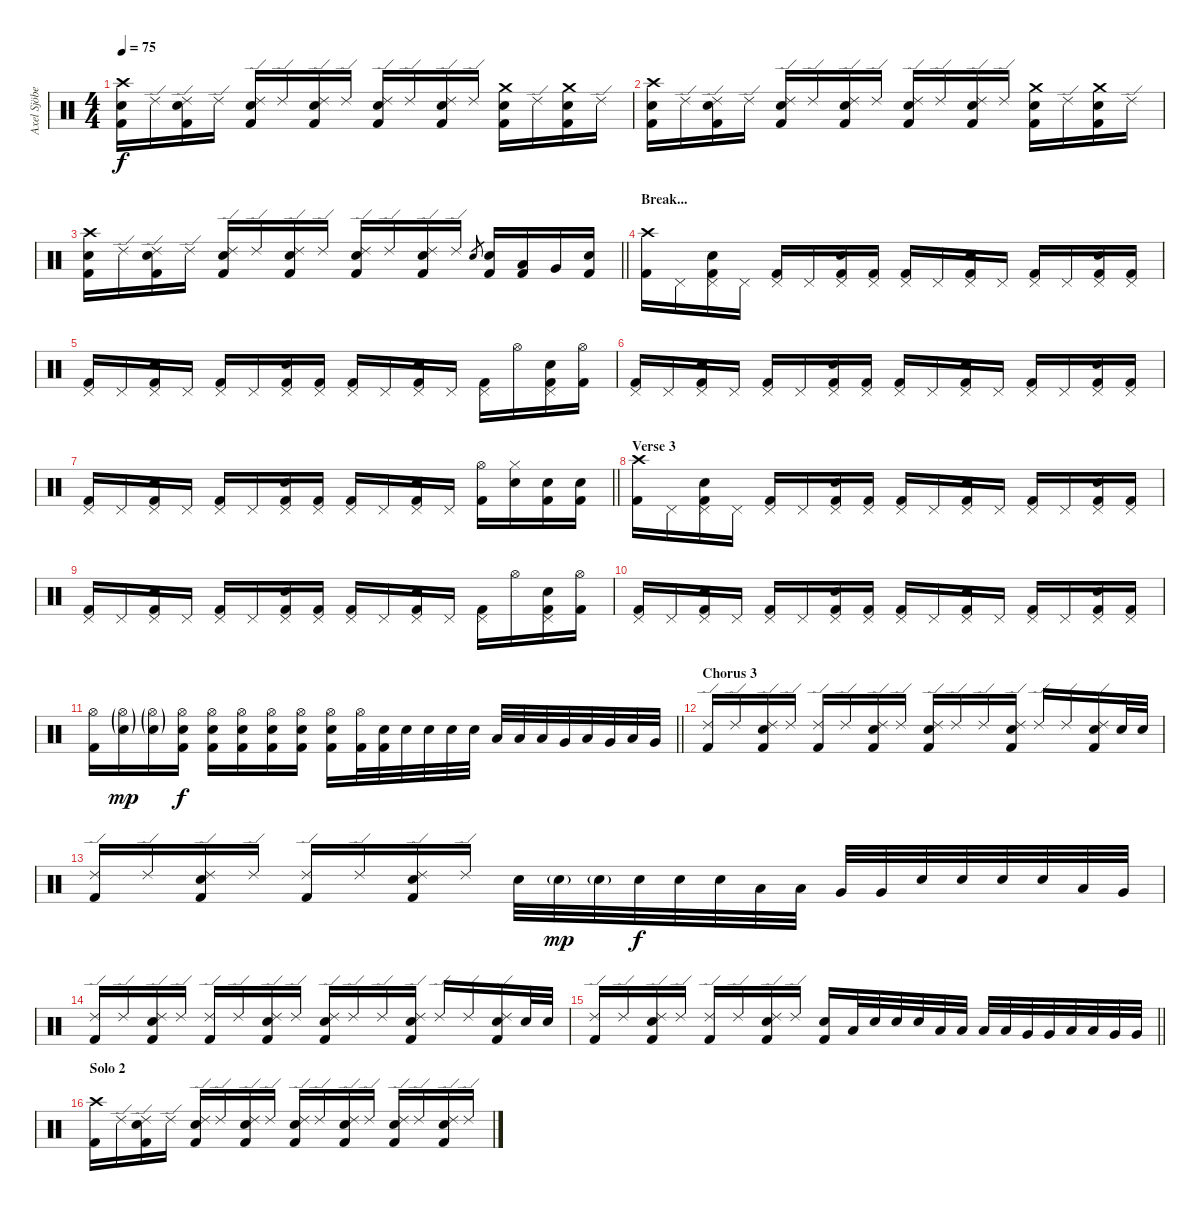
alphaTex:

\track ("Axel Sjöberg" "Axel Sjöbe") {instrument percussion}
\staff {score}
\articulation defaults
\ts (4 4)
\tempo 75
\clef neutral
\ks c
("Kick (hit) 2" "Snare (hit) 2" "Crash high (hit)").16{dy f} "Ride (edge) 2".16 ("Kick (hit) 2" "Snare (hit) 2" "Ride (edge) 2").16 "Ride (edge) 2".16 ("Kick (hit) 2" "Snare (hit) 2" "Ride (edge) 2").16 "Ride (edge) 2".16 ("Kick (hit) 2" "Snare (hit) 2" "Ride (edge) 2").16 "Ride (edge) 2".16 ("Kick (hit) 2" "Snare (hit) 2" "Ride (edge) 2").16 "Ride (edge) 2".16 ("Kick (hit) 2" "Snare (hit) 2" "Ride (edge) 2").16 "Ride (edge) 2".16 ("Kick (hit) 2" "Snare (hit) 2" "Crash medium (hit)").16 "Ride (edge) 2".16 ("Kick (hit) 2" "Snare (hit) 2" "Crash medium (hit)").16 "Ride (edge) 2".16 |
("Kick (hit) 2" "Snare (hit) 2" "Crash high (hit)").16 "Ride (edge) 2".16 ("Kick (hit) 2" "Snare (hit) 2" "Ride (edge) 2").16 "Ride (edge) 2".16 ("Kick (hit) 2" "Snare (hit) 2" "Ride (edge) 2").16 "Ride (edge) 2".16 ("Kick (hit) 2" "Snare (hit) 2" "Ride (edge) 2").16 "Ride (edge) 2".16 ("Kick (hit) 2" "Snare (hit) 2" "Ride (edge) 2").16 "Ride (edge) 2".16 ("Kick (hit) 2" "Snare (hit) 2" "Ride (edge) 2").16 "Ride (edge) 2".16 ("Kick (hit) 2" "Snare (hit) 2" "Crash medium (hit)").16 "Ride (edge) 2".16 ("Kick (hit) 2" "Snare (hit) 2" "Crash medium (hit)").16 "Ride (edge) 2".16 |
\barLineRight lightlight
("Kick (hit) 2" "Snare (hit) 2" "Crash high (hit)").16 "Ride (edge) 2".16 ("Kick (hit) 2" "Snare (hit) 2" "Ride (edge) 2").16 "Ride (edge) 2".16 ("Kick (hit) 2" "Snare (hit) 2" "Ride (edge) 2").16 "Ride (edge) 2".16 ("Kick (hit) 2" "Snare (hit) 2" "Ride (edge) 2").16 "Ride (edge) 2".16 ("Kick (hit) 2" "Snare (hit) 2" "Ride (edge) 2").16 "Ride (edge) 2".16 ("Kick (hit) 2" "Snare (hit) 2" "Ride (edge) 2").16 "Ride (edge) 2".16 "Snare (hit) 2".8{gr} ("Kick (hit) 2" "Snare (hit) 2").16 ("Kick (hit) 2" "Low Tom (hit)").16 "Very Low Tom (hit)".16 ("Kick (hit) 2" "Snare (hit) 2").16 |
\section ("" "Break...")
("Kick (hit) 2" "Crash high (hit)").16 "Pedal Hi-Hat (hit)".16 ("Kick (hit) 2" "Snare (hit) 2" "Pedal Hi-Hat (hit)").16 "Pedal Hi-Hat (hit)".16 ("Kick (hit) 2" "Pedal Hi-Hat (hit)").16 "Pedal Hi-Hat (hit)".16 ("Kick (hit) 2" "Snare (hit) 2" "Pedal Hi-Hat (hit)").16 ("Kick (hit) 2" "Pedal Hi-Hat (hit)").16 ("Kick (hit) 2" "Pedal Hi-Hat (hit)").16 "Pedal Hi-Hat (hit)".16 ("Kick (hit) 2" "Snare (hit) 2" "Pedal Hi-Hat (hit)").16 "Pedal Hi-Hat (hit)".16 ("Kick (hit) 2" "Pedal Hi-Hat (hit)").16 "Pedal Hi-Hat (hit)".16 ("Kick (hit) 2" "Snare (hit) 2" "Pedal Hi-Hat (hit)").16 ("Kick (hit) 2" "Pedal Hi-Hat (hit)").16 |
("Kick (hit) 2" "Pedal Hi-Hat (hit)").16 "Pedal Hi-Hat (hit)".16 ("Kick (hit) 2" "Snare (hit) 2" "Pedal Hi-Hat (hit)").16 "Pedal Hi-Hat (hit)".16 ("Kick (hit) 2" "Pedal Hi-Hat (hit)").16 "Pedal Hi-Hat (hit)".16 ("Kick (hit) 2" "Snare (hit) 2" "Pedal Hi-Hat (hit)").16 ("Kick (hit) 2" "Pedal Hi-Hat (hit)").16 ("Kick (hit) 2" "Pedal Hi-Hat (hit)").16 "Pedal Hi-Hat (hit)".16 ("Kick (hit) 2" "Snare (hit) 2" "Pedal Hi-Hat (hit)").16 "Pedal Hi-Hat (hit)".16 ("Kick (hit) 2" "Pedal Hi-Hat (hit)").16 "Hi-Hat (open)".16 ("Kick (hit) 2" "Snare (hit) 2" "Pedal Hi-Hat (hit)").16 ("Kick (hit) 2" "Hi-Hat (open)").16 |
("Kick (hit) 2" "Pedal Hi-Hat (hit)").16 "Pedal Hi-Hat (hit)".16 ("Kick (hit) 2" "Snare (hit) 2" "Pedal Hi-Hat (hit)").16 "Pedal Hi-Hat (hit)".16 ("Kick (hit) 2" "Pedal Hi-Hat (hit)").16 "Pedal Hi-Hat (hit)".16 ("Kick (hit) 2" "Snare (hit) 2" "Pedal Hi-Hat (hit)").16 ("Kick (hit) 2" "Pedal Hi-Hat (hit)").16 ("Kick (hit) 2" "Pedal Hi-Hat (hit)").16 "Pedal Hi-Hat (hit)".16 ("Kick (hit) 2" "Snare (hit) 2" "Pedal Hi-Hat (hit)").16 "Pedal Hi-Hat (hit)".16 ("Kick (hit) 2" "Pedal Hi-Hat (hit)").16 "Pedal Hi-Hat (hit)".16 ("Kick (hit) 2" "Snare (hit) 2" "Pedal Hi-Hat (hit)").16 ("Kick (hit) 2" "Pedal Hi-Hat (hit)").16 |
\barLineRight lightlight
("Kick (hit) 2" "Pedal Hi-Hat (hit)").16 "Pedal Hi-Hat (hit)".16 ("Kick (hit) 2" "Snare (hit) 2" "Pedal Hi-Hat (hit)").16 "Pedal Hi-Hat (hit)".16 ("Kick (hit) 2" "Pedal Hi-Hat (hit)").16 "Pedal Hi-Hat (hit)".16 ("Kick (hit) 2" "Snare (hit) 2" "Pedal Hi-Hat (hit)").16 ("Kick (hit) 2" "Pedal Hi-Hat (hit)").16 ("Kick (hit) 2" "Pedal Hi-Hat (hit)").16 "Pedal Hi-Hat (hit)".16 ("Kick (hit) 2" "Snare (hit) 2" "Pedal Hi-Hat (hit)").16 "Pedal Hi-Hat (hit)".16 ("Kick (hit) 2" "Hi-Hat (open)").16 ("Snare (hit) 2" "Hi-Hat (closed)").16 ("Kick (hit) 2" "Snare (hit) 2").16 ("Kick (hit) 2" "Snare (hit) 2").16 |
\section ("" "Verse 3")
("Kick (hit) 2" "Crash high (hit)").16 "Pedal Hi-Hat (hit)".16 ("Kick (hit) 2" "Snare (hit) 2" "Pedal Hi-Hat (hit)").16 "Pedal Hi-Hat (hit)".16 ("Kick (hit) 2" "Pedal Hi-Hat (hit)").16 "Pedal Hi-Hat (hit)".16 ("Kick (hit) 2" "Snare (hit) 2" "Pedal Hi-Hat (hit)").16 ("Kick (hit) 2" "Pedal Hi-Hat (hit)").16 ("Kick (hit) 2" "Pedal Hi-Hat (hit)").16 "Pedal Hi-Hat (hit)".16 ("Kick (hit) 2" "Snare (hit) 2" "Pedal Hi-Hat (hit)").16 "Pedal Hi-Hat (hit)".16 ("Kick (hit) 2" "Pedal Hi-Hat (hit)").16 "Pedal Hi-Hat (hit)".16 ("Kick (hit) 2" "Snare (hit) 2" "Pedal Hi-Hat (hit)").16 ("Kick (hit) 2" "Pedal Hi-Hat (hit)").16 |
("Kick (hit) 2" "Pedal Hi-Hat (hit)").16 "Pedal Hi-Hat (hit)".16 ("Kick (hit) 2" "Snare (hit) 2" "Pedal Hi-Hat (hit)").16 "Pedal Hi-Hat (hit)".16 ("Kick (hit) 2" "Pedal Hi-Hat (hit)").16 "Pedal Hi-Hat (hit)".16 ("Kick (hit) 2" "Snare (hit) 2" "Pedal Hi-Hat (hit)").16 ("Kick (hit) 2" "Pedal Hi-Hat (hit)").16 ("Kick (hit) 2" "Pedal Hi-Hat (hit)").16 "Pedal Hi-Hat (hit)".16 ("Kick (hit) 2" "Snare (hit) 2" "Pedal Hi-Hat (hit)").16 "Pedal Hi-Hat (hit)".16 ("Kick (hit) 2" "Pedal Hi-Hat (hit)").16 "Hi-Hat (open)".16 ("Kick (hit) 2" "Snare (hit) 2" "Pedal Hi-Hat (hit)").16 ("Kick (hit) 2" "Hi-Hat (open)").16 |
("Kick (hit) 2" "Pedal Hi-Hat (hit)").16 "Pedal Hi-Hat (hit)".16 ("Kick (hit) 2" "Snare (hit) 2" "Pedal Hi-Hat (hit)").16 "Pedal Hi-Hat (hit)".16 ("Kick (hit) 2" "Pedal Hi-Hat (hit)").16 "Pedal Hi-Hat (hit)".16 ("Kick (hit) 2" "Snare (hit) 2" "Pedal Hi-Hat (hit)").16 ("Kick (hit) 2" "Pedal Hi-Hat (hit)").16 ("Kick (hit) 2" "Pedal Hi-Hat (hit)").16 "Pedal Hi-Hat (hit)".16 ("Kick (hit) 2" "Snare (hit) 2" "Pedal Hi-Hat (hit)").16 "Pedal Hi-Hat (hit)".16 ("Kick (hit) 2" "Pedal Hi-Hat (hit)").16 "Pedal Hi-Hat (hit)".16 ("Kick (hit) 2" "Snare (hit) 2" "Pedal Hi-Hat (hit)").16 ("Kick (hit) 2" "Pedal Hi-Hat (hit)").16 |
\barLineRight lightlight
("Kick (hit) 2" "Hi-Hat (open)").16 ("Snare (hit) 2"{g} "Hi-Hat (open)"{g}).16{dy mp} ("Snare (hit) 2"{g} "Hi-Hat (open)"{g}).16 ("Kick (hit) 2" "Snare (hit) 2" "Hi-Hat (open)").16{dy f} ("Kick (hit) 2" "Snare (hit) 2" "Hi-Hat (open)").16 ("Kick (hit) 2" "Snare (hit) 2" "Hi-Hat (open)").16 ("Kick (hit) 2" "Snare (hit) 2" "Hi-Hat (open)").16 ("Kick (hit) 2" "Snare (hit) 2" "Hi-Hat (open)").16 ("Kick (hit) 2" "Snare (hit) 2" "Hi-Hat (open)").16 ("Kick (hit) 2" "Hi-Hat (open)").32 ("Kick (hit) 2" "Snare (hit) 2").32 "Snare (hit) 2".32 "Snare (hit) 2".32 "Snare (hit) 2".32 "Snare (hit) 2".32 "Low Tom (hit)".32 "Low Floor Tom (hit)".32 "Low Tom (hit)".32 "Very Low Tom (hit)".32 "Low Tom (hit)".32 "Very Low Tom (hit)".32 "Low Floor Tom (hit)".32 "Very Low Tom (hit)".32 |
\section ("" "Chorus 3")
("Kick (hit) 2" "Ride (edge) 2").16 "Ride (edge) 2".16 ("Kick (hit) 2" "Snare (hit) 2" "Ride (edge) 2").16 "Ride (edge) 2".16 ("Kick (hit) 2" "Ride (edge) 2").16 "Ride (edge) 2".16 ("Kick (hit) 2" "Snare (hit) 2" "Ride (edge) 2").16 "Ride (edge) 2".16 ("Kick (hit) 2" "Snare (hit) 2" "Ride (edge) 2").16 "Ride (edge) 2".16 "Ride (edge) 2".16 ("Kick (hit) 2" "Snare (hit) 2" "Ride (edge) 2").16 "Ride (edge) 2".16 "Ride (edge) 2".16 ("Kick (hit) 2" "Snare (hit) 2" "Ride (edge) 2").16 "Snare (hit) 2".32 "Snare (hit) 2".32 |
("Kick (hit) 2" "Ride (edge) 2").16 "Ride (edge) 2".16 ("Kick (hit) 2" "Snare (hit) 2" "Ride (edge) 2").16 "Ride (edge) 2".16 ("Kick (hit) 2" "Ride (edge) 2").16 "Ride (edge) 2".16 ("Kick (hit) 2" "Snare (hit) 2" "Ride (edge) 2").16 "Ride (edge) 2".16 "Snare (hit) 2".32 "Snare (hit) 2"{g}.32{dy mp} "Snare (hit) 2"{g}.32 "Snare (hit) 2".32{dy f} "Snare (hit) 2".32 "Snare (hit) 2".32 "Low Tom (hit)".32 "Low Floor Tom (hit)".32 "Very Low Tom (hit)".32 "Very Low Tom (hit)".32 "Snare (hit) 2".32 "Snare (hit) 2".32 "Snare (hit) 2".32 "Snare (hit) 2".32 "Low Tom (hit)".32 "Very Low Tom (hit)".32 |
("Kick (hit) 2" "Ride (edge) 2").16 "Ride (edge) 2".16 ("Kick (hit) 2" "Snare (hit) 2" "Ride (edge) 2").16 "Ride (edge) 2".16 ("Kick (hit) 2" "Ride (edge) 2").16 "Ride (edge) 2".16 ("Kick (hit) 2" "Snare (hit) 2" "Ride (edge) 2").16 "Ride (edge) 2".16 ("Kick (hit) 2" "Snare (hit) 2" "Ride (edge) 2").16 "Ride (edge) 2".16 "Ride (edge) 2".16 ("Kick (hit) 2" "Snare (hit) 2" "Ride (edge) 2").16 "Ride (edge) 2".16 "Ride (edge) 2".16 ("Kick (hit) 2" "Snare (hit) 2" "Ride (edge) 2").16 "Snare (hit) 2".32 "Snare (hit) 2".32 |
\barLineRight lightlight
("Kick (hit) 2" "Ride (edge) 2").16 "Ride (edge) 2".16 ("Kick (hit) 2" "Snare (hit) 2" "Ride (edge) 2").16 "Ride (edge) 2".16 ("Kick (hit) 2" "Ride (edge) 2").16 "Ride (edge) 2".16 ("Kick (hit) 2" "Snare (hit) 2" "Ride (edge) 2").16 "Ride (edge) 2".16 ("Kick (hit) 2" "Snare (hit) 2").16 "Low Floor Tom (hit)".32 "Snare (hit) 2".32 "Snare (hit) 2".32 "Snare (hit) 2".32 "Low Tom (hit)".32 "Low Tom (hit)".32 "Low Tom (hit)".32 "Low Tom (hit)".32 "Very Low Tom (hit)".32 "Very Low Tom (hit)".32 "Low Floor Tom (hit)".32 "Low Floor Tom (hit)".32 "Very Low Tom (hit)".32 "Very Low Tom (hit)".32 |
\section ("" "Solo 2 ")
("Kick (hit) 2" "Crash high (hit)").16 "Ride (edge) 2".16 ("Kick (hit) 2" "Snare (hit) 2" "Ride (edge) 2").16 "Ride (edge) 2".16 ("Kick (hit) 2" "Snare (hit) 2" "Ride (edge) 2").16 "Ride (edge) 2".16 ("Kick (hit) 2" "Snare (hit) 2" "Ride (edge) 2").16 "Ride (edge) 2".16 ("Kick (hit) 2" "Snare (hit) 2" "Ride (edge) 2").16 "Ride (edge) 2".16 ("Kick (hit) 2" "Snare (hit) 2" "Ride (edge) 2").16 "Ride (edge) 2".16 ("Kick (hit) 2" "Snare (hit) 2" "Ride (edge) 2").16 "Ride (edge) 2".16 ("Kick (hit) 2" "Snare (hit) 2" "Ride (edge) 2").16 "Ride (edge) 2".16
